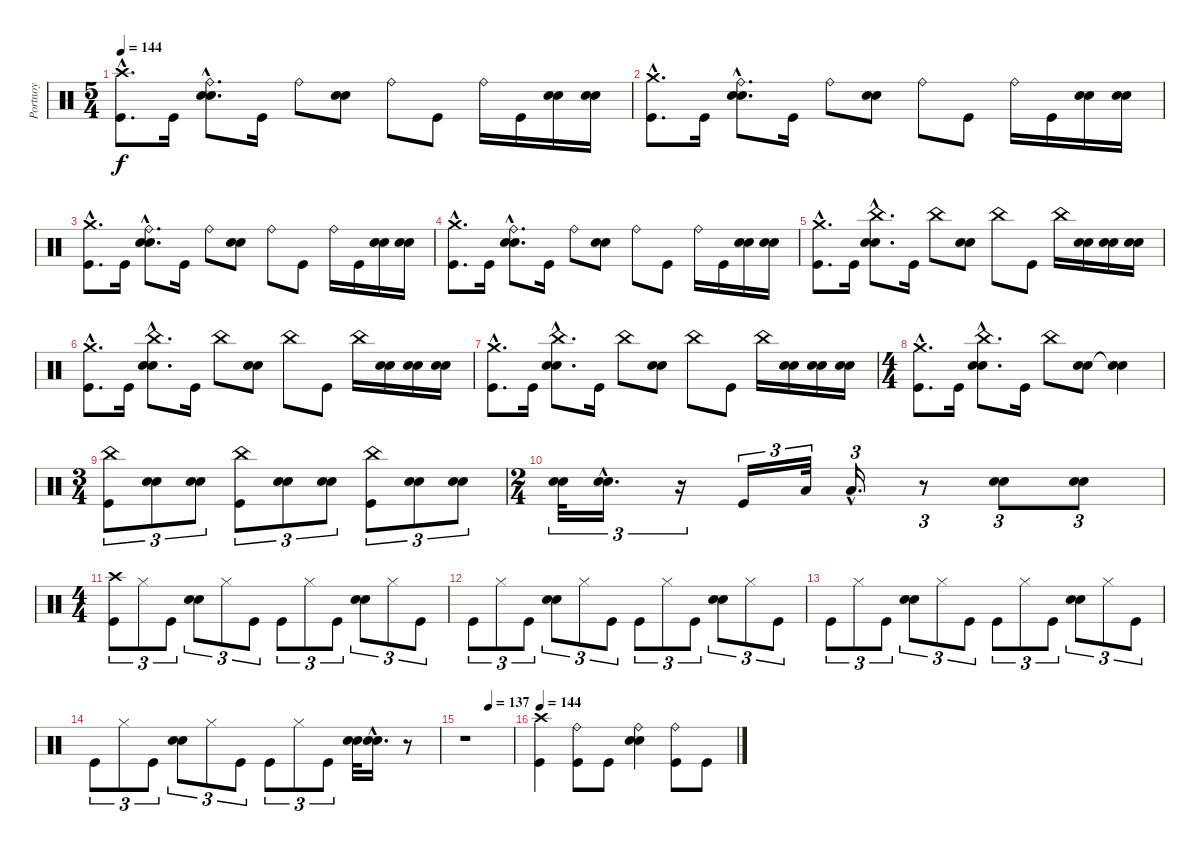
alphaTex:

\track ("Portnoy" "Portnoy") {instrument percussion}
\staff {score}
\articulation defaults
\ts (5 4)
\tempo 144
\clef neutral
\ks c
("Crash high (hit)"{hac} "Kick (hit)"{hac}).8{d dy f} "Kick (hit)".16 ("Ride (bell)"{hac} "Snare (hit) 2"{hac} "Electric Snare (hit)"{hac}).8{d} "Kick (hit)".16 "Ride (bell)".8 ("Snare (hit) 2" "Electric Snare (hit)").8 "Ride (bell)".8 "Kick (hit)".8 "Ride (bell)".16 "Kick (hit)".16 ("Snare (hit) 2" "Electric Snare (hit)").16 ("Snare (hit) 2" "Electric Snare (hit)").16 |
("Crash medium (hit)"{hac} "Kick (hit)"{hac}).8{d} "Kick (hit)".16 ("Ride (bell)"{hac} "Snare (hit) 2"{hac} "Electric Snare (hit)"{hac}).8{d} "Kick (hit)".16 "Ride (bell)".8 ("Snare (hit) 2" "Electric Snare (hit)").8 "Ride (bell)".8 "Kick (hit)".8 "Ride (bell)".16 "Kick (hit)".16 ("Snare (hit) 2" "Electric Snare (hit)").16 ("Snare (hit) 2" "Electric Snare (hit)").16 |
("Crash medium (hit)"{hac} "Kick (hit)"{hac}).8{d} "Kick (hit)".16 ("Ride (bell)"{hac} "Snare (hit) 2"{hac} "Electric Snare (hit)"{hac}).8{d} "Kick (hit)".16 "Ride (bell)".8 ("Snare (hit) 2" "Electric Snare (hit)").8 "Ride (bell)".8 "Kick (hit)".8 "Ride (bell)".16 "Kick (hit)".16 ("Snare (hit) 2" "Electric Snare (hit)").16 ("Snare (hit) 2" "Electric Snare (hit)").16 |
("Crash medium (hit)"{hac} "Kick (hit)"{hac}).8{d} "Kick (hit)".16 ("Ride (bell)"{hac} "Snare (hit) 2"{hac} "Electric Snare (hit)"{hac}).8{d} "Kick (hit)".16 "Ride (bell)".8 ("Snare (hit) 2" "Electric Snare (hit)").8 "Ride (bell)".8 "Kick (hit)".8 "Ride (bell)".16 "Kick (hit)".16 ("Snare (hit) 2" "Electric Snare (hit)").16 ("Snare (hit) 2" "Electric Snare (hit)").16 |
("Crash medium (hit)"{hac} "Kick (hit)"{hac}).8{d} "Kick (hit)".16 ("China (hit)"{hac} "Snare (hit) 2"{hac} "Electric Snare (hit)"{hac}).8{d} "Kick (hit)".16 "China (hit)".8 ("Snare (hit) 2" "Electric Snare (hit)").8 "China (hit)".8 "Kick (hit)".8 "China (hit)".16 ("Snare (hit) 2" "Electric Snare (hit)").16 ("Snare (hit) 2" "Electric Snare (hit)").16 ("Snare (hit) 2" "Electric Snare (hit)").16 |
("Crash medium (hit)"{hac} "Kick (hit)"{hac}).8{d} "Kick (hit)".16 ("China (hit)"{hac} "Snare (hit) 2"{hac} "Electric Snare (hit)"{hac}).8{d} "Kick (hit)".16 "China (hit)".8 ("Snare (hit) 2" "Electric Snare (hit)").8 "China (hit)".8 "Kick (hit)".8 "China (hit)".16 ("Snare (hit) 2" "Electric Snare (hit)").16 ("Snare (hit) 2" "Electric Snare (hit)").16 ("Snare (hit) 2" "Electric Snare (hit)").16 |
("Crash medium (hit)"{hac} "Kick (hit)"{hac}).8{d} "Kick (hit)".16 ("China (hit)"{hac} "Snare (hit) 2"{hac} "Electric Snare (hit)"{hac}).8{d} "Kick (hit)".16 "China (hit)".8 ("Snare (hit) 2" "Electric Snare (hit)").8 "China (hit)".8 "Kick (hit)".8 "China (hit)".16 ("Snare (hit) 2" "Electric Snare (hit)").16 ("Snare (hit) 2" "Electric Snare (hit)").16 ("Snare (hit) 2" "Electric Snare (hit)").16 |
\ts (4 4)
("Crash medium (hit)"{hac} "Kick (hit)"{hac}).8{d} "Kick (hit)".16 ("China (hit)"{hac} "Snare (hit) 2"{hac} "Electric Snare (hit)"{hac}).8{d} "Kick (hit)".16 "China (hit)".8 ("Snare (hit) 2" "Electric Snare (hit)").8 ("Snare (hit)"{t} "Snare (hit)"{t}).4 |
\ts (3 4)
("China (hit)" "Kick (hit)").8{tu (3 2)} ("Snare (hit) 2" "Electric Snare (hit)").8{tu (3 2)} ("Snare (hit) 2" "Electric Snare (hit)").8{tu (3 2)} ("China (hit)" "Kick (hit)").8{tu (3 2)} ("Snare (hit) 2" "Electric Snare (hit)").8{tu (3 2)} ("Snare (hit) 2" "Electric Snare (hit)").8{tu (3 2)} ("China (hit)" "Kick (hit)").8{tu (3 2)} ("Snare (hit) 2" "Electric Snare (hit)").8{tu (3 2)} ("Snare (hit) 2" "Electric Snare (hit)").8{tu (3 2)} |
\ts (2 4)
("Snare (hit) 2" "Electric Snare (hit)").32{tu (3 2)} ("Snare (hit) 2"{hac} "Electric Snare (hit)"{hac}).16{d tu (3 2)} r.16{tu (3 2)} "Kick (hit)".16{tu (3 2)} "Low Tom (hit)".32{tu (3 2)} "Low Tom (hit)"{hac}.16{d tu (3 2)} r.8{tu (3 2)} ("Snare (hit) 2" "Electric Snare (hit)").8{tu (3 2)} ("Snare (hit) 2" "Electric Snare (hit)").8{tu (3 2)} |
\ts (4 4)
("Crash high (hit)" "Kick (hit)").8{tu (3 2)} "Hi-Hat (closed)".8{tu (3 2)} "Kick (hit)".8{tu (3 2)} ("Snare (hit) 2" "Electric Snare (hit)").8{tu (3 2)} "Hi-Hat (closed)".8{tu (3 2)} "Kick (hit)".8{tu (3 2)} "Kick (hit)".8{tu (3 2)} "Hi-Hat (closed)".8{tu (3 2)} "Kick (hit)".8{tu (3 2)} ("Snare (hit) 2" "Electric Snare (hit)").8{tu (3 2)} "Hi-Hat (closed)".8{tu (3 2)} "Kick (hit)".8{tu (3 2)} |
"Kick (hit)".8{tu (3 2)} "Hi-Hat (closed)".8{tu (3 2)} "Kick (hit)".8{tu (3 2)} ("Snare (hit) 2" "Electric Snare (hit)").8{tu (3 2)} "Hi-Hat (closed)".8{tu (3 2)} "Kick (hit)".8{tu (3 2)} "Kick (hit)".8{tu (3 2)} "Hi-Hat (closed)".8{tu (3 2)} "Kick (hit)".8{tu (3 2)} ("Snare (hit) 2" "Electric Snare (hit)").8{tu (3 2)} "Hi-Hat (closed)".8{tu (3 2)} "Kick (hit)".8{tu (3 2)} |
"Kick (hit)".8{tu (3 2)} "Hi-Hat (closed)".8{tu (3 2)} "Kick (hit)".8{tu (3 2)} ("Snare (hit) 2" "Electric Snare (hit)").8{tu (3 2)} "Hi-Hat (closed)".8{tu (3 2)} "Kick (hit)".8{tu (3 2)} "Kick (hit)".8{tu (3 2)} "Hi-Hat (closed)".8{tu (3 2)} "Kick (hit)".8{tu (3 2)} ("Snare (hit) 2" "Electric Snare (hit)").8{tu (3 2)} "Hi-Hat (closed)".8{tu (3 2)} "Kick (hit)".8{tu (3 2)} |
"Kick (hit)".8{tu (3 2)} "Hi-Hat (closed)".8{tu (3 2)} "Kick (hit)".8{tu (3 2)} ("Snare (hit) 2" "Electric Snare (hit)").8{tu (3 2)} "Hi-Hat (closed)".8{tu (3 2)} "Kick (hit)".8{tu (3 2)} "Kick (hit)".8{tu (3 2)} "Hi-Hat (closed)".8{tu (3 2)} "Kick (hit)".8{tu (3 2)} ("Snare (hit) 2" "Electric Snare (hit)").32 ("Snare (hit) 2"{hac} "Electric Snare (hit)"{hac}).16{d} r.8 |
\tempo (137 0.5)
r.1 |
\tempo 144
("Crash high (hit)" "Kick (hit)").4 ("Ride (bell)" "Kick (hit)").8 "Kick (hit)".8 ("Ride (bell)" "Snare (hit) 2" "Electric Snare (hit)").4 ("Ride (bell)" "Kick (hit)").8 "Kick (hit)".8
